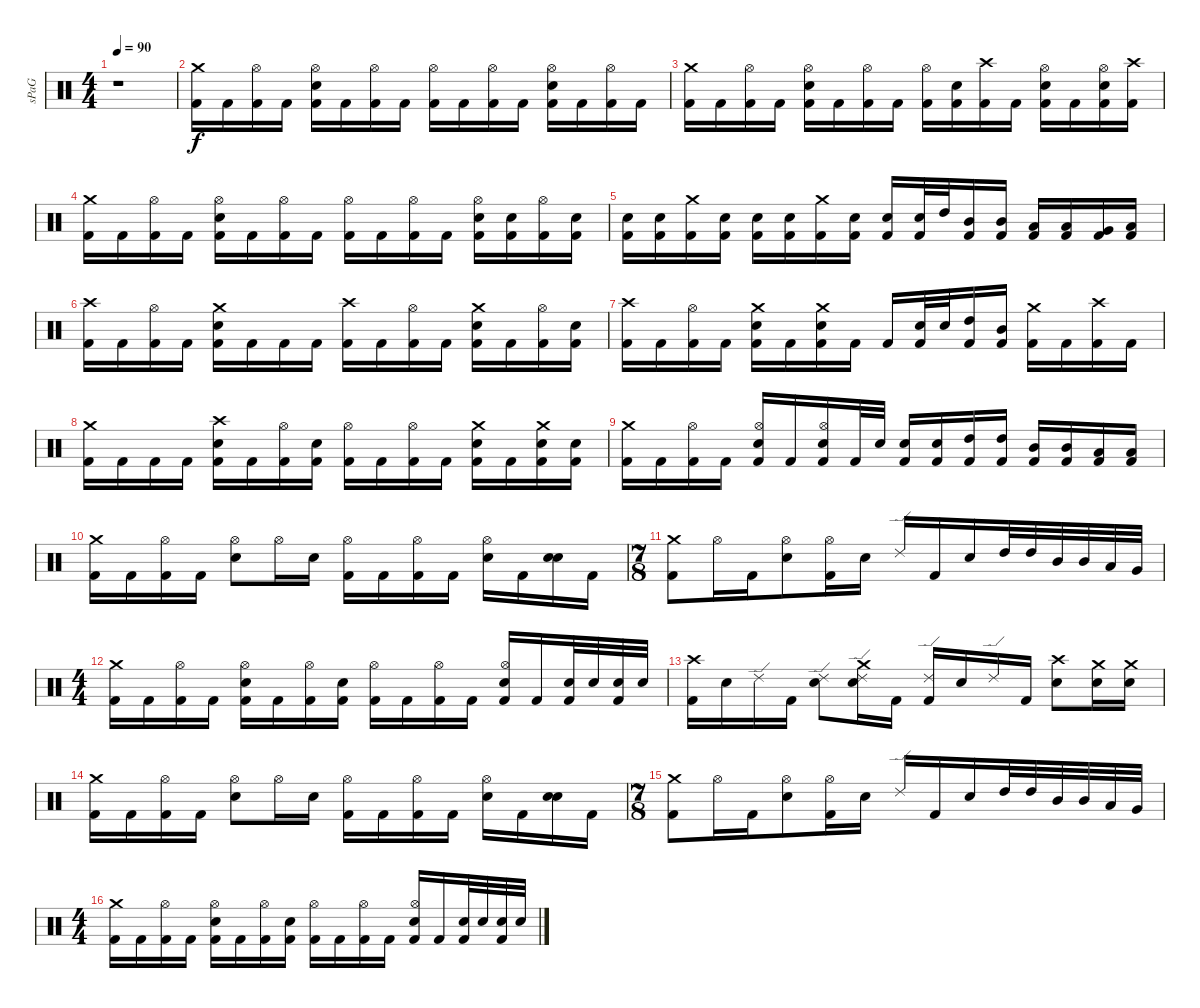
\track ("sPaG" "sPaG") {instrument percussion}
\staff {score}
\articulation defaults
\ts (4 4)
\tempo 90
\clef neutral
\ks c
r.1{dy f} |
("Crash medium (hit)" "Kick (hit) 2").16 "Kick (hit) 2".16 ("Hi-Hat (open)" "Kick (hit) 2").16 "Kick (hit) 2".16 ("Hi-Hat (open)" "Snare (hit) 2" "Kick (hit) 2").16 "Kick (hit) 2".16 ("Hi-Hat (open)" "Kick (hit) 2").16 "Kick (hit) 2".16 ("Hi-Hat (open)" "Kick (hit) 2").16 "Kick (hit) 2".16 ("Hi-Hat (open)" "Kick (hit) 2").16 "Kick (hit) 2".16 ("Hi-Hat (open)" "Snare (hit) 2" "Kick (hit) 2").16 "Kick (hit) 2".16 ("Hi-Hat (open)" "Kick (hit) 2").16 "Kick (hit) 2".16 |
("Crash medium (hit)" "Kick (hit) 2").16 "Kick (hit) 2".16 ("Hi-Hat (open)" "Kick (hit) 2").16 "Kick (hit) 2".16 ("Hi-Hat (open)" "Snare (hit) 2" "Kick (hit) 2").16 "Kick (hit) 2".16 ("Hi-Hat (open)" "Kick (hit) 2").16 "Kick (hit) 2".16 ("Hi-Hat (open)" "Kick (hit) 2").16 ("Snare (hit) 2" "Kick (hit) 2").16 ("Crash high (hit)" "Kick (hit) 2").16 "Kick (hit) 2".16 ("Hi-Hat (open)" "Snare (hit) 2" "Kick (hit) 2").16 "Kick (hit) 2".16 ("Hi-Hat (open)" "Snare (hit) 2" "Kick (hit) 2").16 ("Crash high (hit)" "Kick (hit) 2").16 |
("Crash medium (hit)" "Kick (hit) 2").16 "Kick (hit) 2".16 ("Hi-Hat (open)" "Kick (hit) 2").16 "Kick (hit) 2".16 ("Hi-Hat (open)" "Snare (hit) 2" "Kick (hit) 2").16 "Kick (hit) 2".16 ("Hi-Hat (open)" "Kick (hit) 2").16 "Kick (hit) 2".16 ("Hi-Hat (open)" "Kick (hit) 2").16 "Kick (hit) 2".16 ("Hi-Hat (open)" "Kick (hit) 2").16 "Kick (hit) 2".16 ("Hi-Hat (open)" "Snare (hit) 2" "Kick (hit) 2").16 ("Snare (hit) 2" "Kick (hit) 2").16 ("Hi-Hat (open)" "Kick (hit) 2").16 ("Snare (hit) 2" "Kick (hit) 2").16 |
("Snare (hit) 2" "Kick (hit) 2").16 ("Snare (hit) 2" "Kick (hit) 2").16 ("Crash medium (hit)" "Kick (hit) 2").16 ("Snare (hit) 2" "Kick (hit) 2").16 ("Snare (hit) 2" "Kick (hit) 2").16 ("Snare (hit) 2" "Kick (hit) 2").16 ("Crash medium (hit)" "Kick (hit) 2").16 ("Snare (hit) 2" "Kick (hit) 2").16 ("Snare (hit) 2" "Kick (hit) 2").16 ("Snare (hit) 2" "Kick (hit) 2").32 "High Tom (hit)".32 ("Mid Tom (hit)" "Kick (hit) 2").16 ("Mid Tom (hit)" "Kick (hit) 2").16 ("Low Tom (hit)" "Kick (hit) 2").16 ("Low Tom (hit)" "Kick (hit) 2").16 ("Very Low Tom (hit)" "Kick (hit) 2").16 ("Low Floor Tom (hit)" "Kick (hit) 2").16 |
("Crash high (hit)" "Kick (hit) 2").16 "Kick (hit) 2".16 ("Hi-Hat (open)" "Kick (hit) 2").16 "Kick (hit) 2".16 ("Crash medium (hit)" "Snare (hit) 2" "Kick (hit) 2").16 "Kick (hit) 2".16 "Kick (hit) 2".16 "Kick (hit) 2".16 ("Crash high (hit)" "Kick (hit) 2").16 "Kick (hit) 2".16 ("Hi-Hat (open)" "Kick (hit) 2").16 "Kick (hit) 2".16 ("Crash medium (hit)" "Snare (hit) 2" "Kick (hit) 2").16 "Kick (hit) 2".16 ("Hi-Hat (open)" "Kick (hit) 2").16 ("Snare (hit) 2" "Kick (hit) 2").16 |
("Crash high (hit)" "Kick (hit) 2").16 "Kick (hit) 2".16 ("Hi-Hat (open)" "Kick (hit) 2").16 "Kick (hit) 2".16 ("Crash medium (hit)" "Snare (hit) 2" "Kick (hit) 2").16 "Kick (hit) 2".16 ("Crash medium (hit)" "Snare (hit) 2" "Kick (hit) 2").16 "Kick (hit) 2".16 "Kick (hit) 2".16 ("Snare (hit) 2" "Kick (hit) 2").32 "Snare (hit) 2".32 ("High Tom (hit)" "Kick (hit) 2").16 ("Mid Tom (hit)" "Kick (hit) 2").16 ("Crash medium (hit)" "Kick (hit) 2").16 "Kick (hit) 2".16 ("Crash high (hit)" "Kick (hit) 2").16 "Kick (hit) 2".16 |
("Crash medium (hit)" "Kick (hit) 2").16 "Kick (hit) 2".16 "Kick (hit) 2".16 "Kick (hit) 2".16 ("Crash high (hit)" "Snare (hit) 2" "Kick (hit) 2").16 "Kick (hit) 2".16 ("Hi-Hat (open)" "Kick (hit) 2").16 ("Snare (hit) 2" "Kick (hit) 2").16 ("Hi-Hat (open)" "Kick (hit) 2").16 "Kick (hit) 2".16 ("Hi-Hat (open)" "Kick (hit) 2").16 "Kick (hit) 2".16 ("Crash medium (hit)" "Snare (hit) 2" "Kick (hit) 2").16 "Kick (hit) 2".16 ("Crash medium (hit)" "Snare (hit) 2" "Kick (hit) 2").16 ("Snare (hit) 2" "Kick (hit) 2").16 |
("Crash medium (hit)" "Kick (hit) 2").16 "Kick (hit) 2".16 ("Hi-Hat (open)" "Kick (hit) 2").16 "Kick (hit) 2".16 ("Hi-Hat (open)" "Snare (hit) 2" "Kick (hit) 2").16 "Kick (hit) 2".16 ("Hi-Hat (open)" "Snare (hit) 2" "Kick (hit) 2").16 "Kick (hit) 2".32 "Snare (hit) 2".32 ("Snare (hit) 2" "Kick (hit) 2").16 ("Snare (hit) 2" "Kick (hit) 2").16 ("High Tom (hit)" "Kick (hit) 2").16 ("High Tom (hit)" "Kick (hit) 2").16 ("Mid Tom (hit)" "Kick (hit) 2").16 ("Mid Tom (hit)" "Kick (hit) 2").16 ("Low Tom (hit)" "Kick (hit) 2").16 ("Low Tom (hit)" "Kick (hit) 2").16 |
("Crash medium (hit)" "Kick (hit) 2").16 "Kick (hit) 2".16 ("Hi-Hat (open)" "Kick (hit) 2").16 "Kick (hit) 2".16 ("Hi-Hat (open)" "Snare (hit) 2").8 "Hi-Hat (open)".16 "Snare (hit) 2".16 ("Hi-Hat (open)" "Kick (hit) 2").16 "Kick (hit) 2".16 ("Hi-Hat (open)" "Kick (hit) 2").16 "Kick (hit) 2".16 ("Hi-Hat (open)" "Snare (hit) 2").16 "Kick (hit) 2".16 ("Snare (hit) 2" "Snare (hit) 2").16 "Kick (hit) 2".16 |
\ts (7 8)
("Crash medium (hit)" "Kick (hit) 2").8 "Hi-Hat (open)".16 "Kick (hit) 2".16 ("Hi-Hat (open)" "Snare (hit) 2").8 ("Hi-Hat (open)" "Kick (hit) 2").16 "Snare (hit) 2".16 "Ride (edge) 2".16 "Kick (hit) 2".16 "Snare (hit) 2".16 "High Tom (hit)".32 "High Tom (hit)".32 "Mid Tom (hit)".32 "Mid Tom (hit)".32 "Low Tom (hit)".32 "Very Low Tom (hit)".32 |
\ts (4 4)
("Crash medium (hit)" "Kick (hit) 2").16 "Kick (hit) 2".16 ("Hi-Hat (open)" "Kick (hit) 2").16 "Kick (hit) 2".16 ("Hi-Hat (open)" "Snare (hit) 2" "Kick (hit) 2").16 "Kick (hit) 2".16 ("Hi-Hat (open)" "Kick (hit) 2").16 ("Snare (hit) 2" "Kick (hit) 2").16 ("Hi-Hat (open)" "Kick (hit) 2").16 "Kick (hit) 2".16 ("Hi-Hat (open)" "Kick (hit) 2").16 "Kick (hit) 2".16 ("Hi-Hat (open)" "Snare (hit) 2" "Kick (hit) 2").16 "Kick (hit) 2".16 ("Snare (hit) 2" "Kick (hit) 2").32 "Snare (hit) 2".32 ("Snare (hit) 2" "Kick (hit) 2").32 "Snare (hit) 2".32 |
("Crash high (hit)" "Kick (hit) 2").16 "Snare (hit) 2".16 "Ride (edge) 2".16 "Kick (hit) 2".16 ("Ride (edge) 2" "Snare (hit) 2").8 ("Crash medium (hit)" "Ride (edge) 2" "Snare (hit) 2").16 "Kick (hit) 2".16 ("Ride (edge) 2" "Kick (hit) 2").16 "Snare (hit) 2".16 "Ride (edge) 2".16 "Kick (hit) 2".16 ("Crash high (hit)" "Snare (hit) 2").8 ("Crash medium (hit)" "Snare (hit) 2").16 ("Crash medium (hit)" "Snare (hit) 2").16 |
("Crash medium (hit)" "Kick (hit) 2").16 "Kick (hit) 2".16 ("Hi-Hat (open)" "Kick (hit) 2").16 "Kick (hit) 2".16 ("Hi-Hat (open)" "Snare (hit) 2").8 "Hi-Hat (open)".16 "Snare (hit) 2".16 ("Hi-Hat (open)" "Kick (hit) 2").16 "Kick (hit) 2".16 ("Hi-Hat (open)" "Kick (hit) 2").16 "Kick (hit) 2".16 ("Hi-Hat (open)" "Snare (hit) 2").16 "Kick (hit) 2".16 ("Snare (hit) 2" "Snare (hit) 2").16 "Kick (hit) 2".16 |
\ts (7 8)
("Crash medium (hit)" "Kick (hit) 2").8 "Hi-Hat (open)".16 "Kick (hit) 2".16 ("Hi-Hat (open)" "Snare (hit) 2").8 ("Hi-Hat (open)" "Kick (hit) 2").16 "Snare (hit) 2".16 "Ride (edge) 2".16 "Kick (hit) 2".16 "Snare (hit) 2".16 "High Tom (hit)".32 "High Tom (hit)".32 "Mid Tom (hit)".32 "Mid Tom (hit)".32 "Low Tom (hit)".32 "Very Low Tom (hit)".32 |
\ts (4 4)
("Crash medium (hit)" "Kick (hit) 2").16 "Kick (hit) 2".16 ("Hi-Hat (open)" "Kick (hit) 2").16 "Kick (hit) 2".16 ("Hi-Hat (open)" "Snare (hit) 2" "Kick (hit) 2").16 "Kick (hit) 2".16 ("Hi-Hat (open)" "Kick (hit) 2").16 ("Snare (hit) 2" "Kick (hit) 2").16 ("Hi-Hat (open)" "Kick (hit) 2").16 "Kick (hit) 2".16 ("Hi-Hat (open)" "Kick (hit) 2").16 "Kick (hit) 2".16 ("Hi-Hat (open)" "Snare (hit) 2" "Kick (hit) 2").16 "Kick (hit) 2".16 ("Snare (hit) 2" "Kick (hit) 2").32 "Snare (hit) 2".32 ("Snare (hit) 2" "Kick (hit) 2").32 "Snare (hit) 2".32
